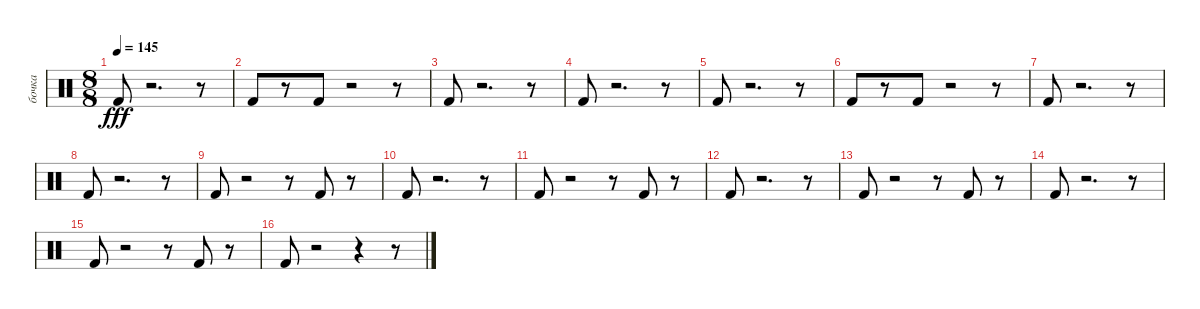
\track ("бочка" "бочка") {instrument percussion}
\staff {score}
\articulation defaults
\ts (8 8)
\tempo 145
\clef neutral
\ks c "Kick (hit) 2".8{dy fff}
r.2{d} r.8 |
"Kick (hit) 2".8 r.8 "Kick (hit) 2".8 r.2 r.8 |
"Kick (hit) 2".8 r.2{d} r.8 |
"Kick (hit) 2".8 r.2{d} r.8 |
"Kick (hit) 2".8 r.2{d} r.8 |
"Kick (hit) 2".8 r.8 "Kick (hit) 2".8 r.2 r.8 |
"Kick (hit) 2".8 r.2{d} r.8 |
"Kick (hit) 2".8 r.2{d} r.8 |
"Kick (hit) 2".8 r.2 r.8 "Kick (hit) 2".8 r.8 |
"Kick (hit) 2".8 r.2{d} r.8 |
"Kick (hit) 2".8 r.2 r.8 "Kick (hit) 2".8 r.8 |
"Kick (hit) 2".8 r.2{d} r.8 |
"Kick (hit) 2".8 r.2 r.8 "Kick (hit) 2".8 r.8 |
"Kick (hit) 2".8 r.2{d} r.8 |
"Kick (hit) 2".8 r.2 r.8 "Kick (hit) 2".8 r.8 |
"Kick (hit) 2".8 r.2 r.4 r.8
